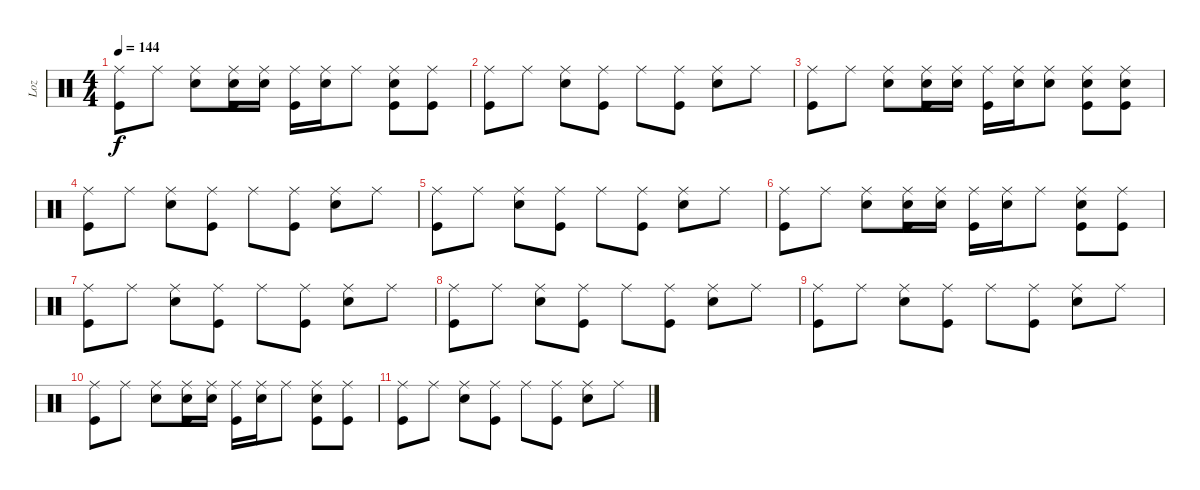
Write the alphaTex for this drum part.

\track ("Loz" "Loz") {instrument percussion}
\staff {score}
\articulation defaults
\ts (4 4)
\tempo 144
\clef neutral
\ks c
("Ride (middle)" "Kick (hit)").8{dy f} "Ride (middle)".8 ("Ride (middle)" "Electric Snare (hit)").8 ("Ride (middle)" "Electric Snare (hit)" "Kick (hit)").16 ("Ride (middle)" "Electric Snare (hit)").16 ("Ride (middle)" "Kick (hit)").16 ("Ride (middle)" "Electric Snare (hit)").16 "Ride (middle)".8 ("Ride (middle)" "Electric Snare (hit)" "Kick (hit)").8 ("Ride (middle)" "Kick (hit)").8 |
("Ride (middle)" "Kick (hit)").8 "Ride (middle)".8 ("Ride (middle)" "Electric Snare (hit)").8 ("Ride (middle)" "Kick (hit)").8 "Ride (middle)".8 ("Ride (middle)" "Kick (hit)").8 ("Ride (middle)" "Electric Snare (hit)").8 "Ride (middle)".8 |
("Ride (middle)" "Kick (hit)").8 "Ride (middle)".8 ("Ride (middle)" "Electric Snare (hit)").8 ("Ride (middle)" "Electric Snare (hit)" "Kick (hit)").16 ("Ride (middle)" "Electric Snare (hit)").16 ("Ride (middle)" "Kick (hit)").16 ("Ride (middle)" "Electric Snare (hit)").16 ("Ride (middle)" "Electric Snare (hit)").8 ("Ride (middle)" "Electric Snare (hit)" "Kick (hit)").8 ("Ride (middle)" "Electric Snare (hit)" "Kick (hit)").8 |
("Ride (middle)" "Kick (hit)").8 "Ride (middle)".8 ("Ride (middle)" "Electric Snare (hit)").8 ("Ride (middle)" "Kick (hit)").8 "Ride (middle)".8 ("Ride (middle)" "Kick (hit)").8 ("Ride (middle)" "Electric Snare (hit)").8 "Ride (middle)".8 |
("Ride (middle)" "Kick (hit)").8 "Ride (middle)".8 ("Ride (middle)" "Electric Snare (hit)").8 ("Ride (middle)" "Kick (hit)").8 "Ride (middle)".8 ("Ride (middle)" "Kick (hit)").8 ("Ride (middle)" "Electric Snare (hit)").8 "Ride (middle)".8 |
("Ride (middle)" "Kick (hit)").8 "Ride (middle)".8 ("Ride (middle)" "Electric Snare (hit)").8 ("Ride (middle)" "Electric Snare (hit)" "Kick (hit)").16 ("Ride (middle)" "Electric Snare (hit)").16 ("Ride (middle)" "Kick (hit)").16 ("Ride (middle)" "Electric Snare (hit)").16 "Ride (middle)".8 ("Ride (middle)" "Electric Snare (hit)" "Kick (hit)").8 ("Ride (middle)" "Kick (hit)").8 |
("Ride (middle)" "Kick (hit)").8 "Ride (middle)".8 ("Ride (middle)" "Electric Snare (hit)").8 ("Ride (middle)" "Kick (hit)").8 "Ride (middle)".8 ("Ride (middle)" "Kick (hit)").8 ("Ride (middle)" "Electric Snare (hit)").8 "Ride (middle)".8 |
("Ride (middle)" "Kick (hit)").8 "Ride (middle)".8 ("Ride (middle)" "Electric Snare (hit)").8 ("Ride (middle)" "Kick (hit)").8 "Ride (middle)".8 ("Ride (middle)" "Kick (hit)").8 ("Ride (middle)" "Electric Snare (hit)").8 "Ride (middle)".8 |
("Ride (middle)" "Kick (hit)").8 "Ride (middle)".8 ("Ride (middle)" "Electric Snare (hit)").8 ("Ride (middle)" "Kick (hit)").8 "Ride (middle)".8 ("Ride (middle)" "Kick (hit)").8 ("Ride (middle)" "Electric Snare (hit)").8 "Ride (middle)".8 |
("Ride (middle)" "Kick (hit)").8 "Ride (middle)".8 ("Ride (middle)" "Electric Snare (hit)").8 ("Ride (middle)" "Electric Snare (hit)" "Kick (hit)").16 ("Ride (middle)" "Electric Snare (hit)").16 ("Ride (middle)" "Kick (hit)").16 ("Ride (middle)" "Electric Snare (hit)").16 "Ride (middle)".8 ("Ride (middle)" "Electric Snare (hit)" "Kick (hit)").8 ("Ride (middle)" "Kick (hit)").8 |
("Ride (middle)" "Kick (hit)").8 "Ride (middle)".8 ("Ride (middle)" "Electric Snare (hit)").8 ("Ride (middle)" "Kick (hit)").8 "Ride (middle)".8 ("Ride (middle)" "Kick (hit)").8 ("Ride (middle)" "Electric Snare (hit)").8 "Ride (middle)".8
